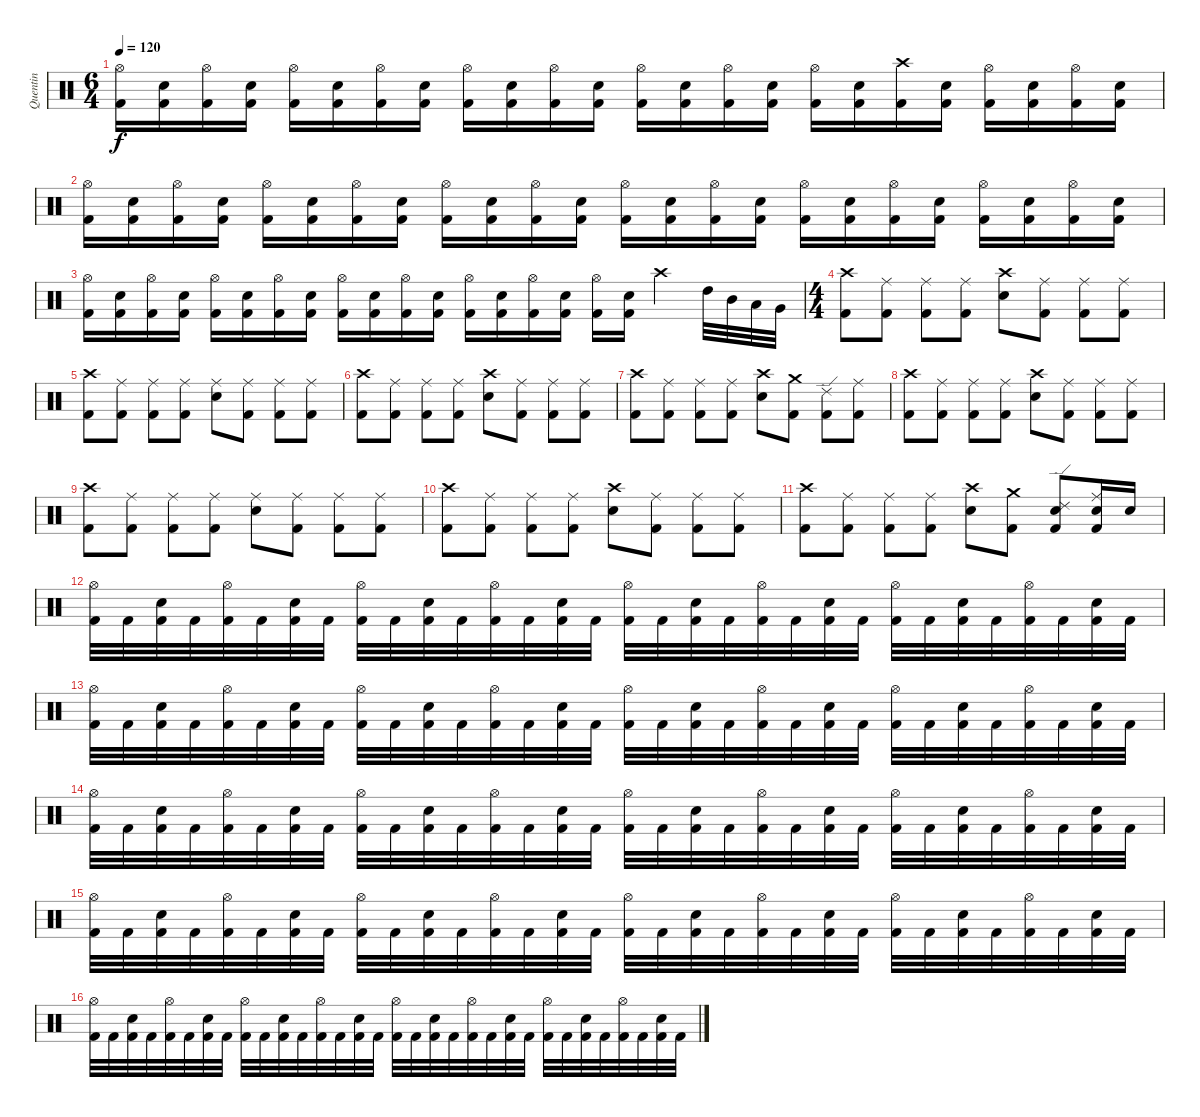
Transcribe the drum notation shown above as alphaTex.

\track ("Quentin" "Quentin") {instrument percussion}
\staff {score}
\articulation defaults
\ts (6 4)
\tempo 120
\clef neutral
\ks c
("Hi-Hat (open)" "Kick (hit) 2").16{dy f} ("Snare (hit) 2" "Kick (hit) 2").16 ("Hi-Hat (open)" "Kick (hit) 2").16 ("Snare (hit) 2" "Kick (hit) 2").16 ("Hi-Hat (open)" "Kick (hit) 2").16 ("Snare (hit) 2" "Kick (hit) 2").16 ("Hi-Hat (open)" "Kick (hit) 2").16 ("Snare (hit) 2" "Kick (hit) 2").16 ("Hi-Hat (open)" "Kick (hit) 2").16 ("Snare (hit) 2" "Kick (hit) 2").16 ("Hi-Hat (open)" "Kick (hit) 2").16 ("Snare (hit) 2" "Kick (hit) 2").16 ("Hi-Hat (open)" "Kick (hit) 2").16 ("Snare (hit) 2" "Kick (hit) 2").16 ("Hi-Hat (open)" "Kick (hit) 2").16 ("Snare (hit) 2" "Kick (hit) 2").16 ("Hi-Hat (open)" "Kick (hit) 2").16 ("Snare (hit) 2" "Kick (hit) 2").16 ("Crash high (hit)" "Kick (hit) 2").16 ("Snare (hit) 2" "Kick (hit) 2").16 ("Hi-Hat (open)" "Kick (hit) 2").16 ("Snare (hit) 2" "Kick (hit) 2").16 ("Hi-Hat (open)" "Kick (hit) 2").16 ("Snare (hit) 2" "Kick (hit) 2").16 |
("Hi-Hat (open)" "Kick (hit) 2").16 ("Snare (hit) 2" "Kick (hit) 2").16 ("Hi-Hat (open)" "Kick (hit) 2").16 ("Snare (hit) 2" "Kick (hit) 2").16 ("Hi-Hat (open)" "Kick (hit) 2").16 ("Snare (hit) 2" "Kick (hit) 2").16 ("Hi-Hat (open)" "Kick (hit) 2").16 ("Snare (hit) 2" "Kick (hit) 2").16 ("Hi-Hat (open)" "Kick (hit) 2").16 ("Snare (hit) 2" "Kick (hit) 2").16 ("Hi-Hat (open)" "Kick (hit) 2").16 ("Snare (hit) 2" "Kick (hit) 2").16 ("Hi-Hat (open)" "Kick (hit) 2").16 ("Snare (hit) 2" "Kick (hit) 2").16 ("Hi-Hat (open)" "Kick (hit) 2").16 ("Snare (hit) 2" "Kick (hit) 2").16 ("Hi-Hat (open)" "Kick (hit) 2").16 ("Snare (hit) 2" "Kick (hit) 2").16 ("Hi-Hat (open)" "Kick (hit) 2").16 ("Snare (hit) 2" "Kick (hit) 2").16 ("Hi-Hat (open)" "Kick (hit) 2").16 ("Snare (hit) 2" "Kick (hit) 2").16 ("Hi-Hat (open)" "Kick (hit) 2").16 ("Snare (hit) 2" "Kick (hit) 2").16 |
("Hi-Hat (open)" "Kick (hit) 2").16 ("Snare (hit) 2" "Kick (hit) 2").16 ("Hi-Hat (open)" "Kick (hit) 2").16 ("Snare (hit) 2" "Kick (hit) 2").16 ("Hi-Hat (open)" "Kick (hit) 2").16 ("Snare (hit) 2" "Kick (hit) 2").16 ("Hi-Hat (open)" "Kick (hit) 2").16 ("Snare (hit) 2" "Kick (hit) 2").16 ("Hi-Hat (open)" "Kick (hit) 2").16 ("Snare (hit) 2" "Kick (hit) 2").16 ("Hi-Hat (open)" "Kick (hit) 2").16 ("Snare (hit) 2" "Kick (hit) 2").16 ("Hi-Hat (open)" "Kick (hit) 2").16 ("Snare (hit) 2" "Kick (hit) 2").16 ("Hi-Hat (open)" "Kick (hit) 2").16 ("Snare (hit) 2" "Kick (hit) 2").16 ("Hi-Hat (open)" "Kick (hit) 2").16 ("Snare (hit) 2" "Kick (hit) 2").16 "Crash high (hit)".4 "High Tom (hit)".32 "Mid Tom (hit)".32 "Low Tom (hit)".32 "Very Low Tom (hit)".32 |
\ts (4 4)
("Crash high (hit)" "Kick (hit) 2").8 ("Ride (middle)" "Kick (hit) 2").8 ("Ride (middle)" "Kick (hit) 2").8 ("Ride (middle)" "Kick (hit) 2").8 ("Crash high (hit)" "Electric Snare (hit)").8 ("Ride (middle)" "Kick (hit) 2").8 ("Ride (middle)" "Kick (hit) 2").8 ("Ride (middle)" "Kick (hit) 2").8 |
("Crash high (hit)" "Kick (hit) 2").8 ("Ride (middle)" "Kick (hit) 2").8 ("Ride (middle)" "Kick (hit) 2").8 ("Ride (middle)" "Kick (hit) 2").8 ("Ride (middle)" "Electric Snare (hit)").8 ("Ride (middle)" "Kick (hit) 2").8 ("Ride (middle)" "Kick (hit) 2").8 ("Ride (middle)" "Kick (hit) 2").8 |
("Crash high (hit)" "Kick (hit) 2").8 ("Ride (middle)" "Kick (hit) 2").8 ("Ride (middle)" "Kick (hit) 2").8 ("Ride (middle)" "Kick (hit) 2").8 ("Crash high (hit)" "Electric Snare (hit)").8 ("Ride (middle)" "Kick (hit) 2").8 ("Ride (middle)" "Kick (hit) 2").8 ("Ride (middle)" "Kick (hit) 2").8 |
("Crash high (hit)" "Kick (hit) 2").8 ("Ride (middle)" "Kick (hit) 2").8 ("Ride (middle)" "Kick (hit) 2").8 ("Ride (middle)" "Kick (hit) 2").8 ("Crash high (hit)" "Electric Snare (hit)").8 ("Crash medium (hit)" "Kick (hit) 2").8 ("Ride (edge) 2" "Kick (hit) 2").8 ("Ride (middle)" "Kick (hit) 2").8 |
("Crash high (hit)" "Kick (hit) 2").8 ("Ride (middle)" "Kick (hit) 2").8 ("Ride (middle)" "Kick (hit) 2").8 ("Ride (middle)" "Kick (hit) 2").8 ("Crash high (hit)" "Electric Snare (hit)").8 ("Ride (middle)" "Kick (hit) 2").8 ("Ride (middle)" "Kick (hit) 2").8 ("Ride (middle)" "Kick (hit) 2").8 |
("Crash high (hit)" "Kick (hit) 2").8 ("Ride (middle)" "Kick (hit) 2").8 ("Ride (middle)" "Kick (hit) 2").8 ("Ride (middle)" "Kick (hit) 2").8 ("Ride (middle)" "Electric Snare (hit)").8 ("Ride (middle)" "Kick (hit) 2").8 ("Ride (middle)" "Kick (hit) 2").8 ("Ride (middle)" "Kick (hit) 2").8 |
("Crash high (hit)" "Kick (hit) 2").8 ("Ride (middle)" "Kick (hit) 2").8 ("Ride (middle)" "Kick (hit) 2").8 ("Ride (middle)" "Kick (hit) 2").8 ("Crash high (hit)" "Electric Snare (hit)").8 ("Ride (middle)" "Kick (hit) 2").8 ("Ride (middle)" "Kick (hit) 2").8 ("Ride (middle)" "Kick (hit) 2").8 |
("Crash high (hit)" "Kick (hit) 2").8 ("Ride (middle)" "Kick (hit) 2").8 ("Ride (middle)" "Kick (hit) 2").8 ("Ride (middle)" "Kick (hit) 2").8 ("Crash high (hit)" "Electric Snare (hit)").8 ("Crash medium (hit)" "Kick (hit) 2").8 ("Ride (edge) 2" "Electric Snare (hit)" "Kick (hit) 2").8 ("Ride (middle)" "Electric Snare (hit)" "Kick (hit) 2").16 "Electric Snare (hit)".16 |
("Hi-Hat (open)" "Kick (hit) 2").32 "Kick (hit) 2".32 ("Snare (hit) 2" "Kick (hit) 2").32 "Kick (hit) 2".32 ("Hi-Hat (open)" "Kick (hit) 2").32 "Kick (hit) 2".32 ("Snare (hit) 2" "Kick (hit) 2").32 "Kick (hit) 2".32 ("Hi-Hat (open)" "Kick (hit) 2").32 "Kick (hit) 2".32 ("Snare (hit) 2" "Kick (hit) 2").32 "Kick (hit) 2".32 ("Hi-Hat (open)" "Kick (hit) 2").32 "Kick (hit) 2".32 ("Snare (hit) 2" "Kick (hit) 2").32 "Kick (hit) 2".32 ("Hi-Hat (open)" "Kick (hit) 2").32 "Kick (hit) 2".32 ("Snare (hit) 2" "Kick (hit) 2").32 "Kick (hit) 2".32 ("Hi-Hat (open)" "Kick (hit) 2").32 "Kick (hit) 2".32 ("Snare (hit) 2" "Kick (hit) 2").32 "Kick (hit) 2".32 ("Hi-Hat (open)" "Kick (hit) 2").32 "Kick (hit) 2".32 ("Snare (hit) 2" "Kick (hit) 2").32 "Kick (hit) 2".32 ("Hi-Hat (open)" "Kick (hit) 2").32 "Kick (hit) 2".32 ("Snare (hit) 2" "Kick (hit) 2").32 "Kick (hit) 2".32 |
("Hi-Hat (open)" "Kick (hit) 2").32 "Kick (hit) 2".32 ("Snare (hit) 2" "Kick (hit) 2").32 "Kick (hit) 2".32 ("Hi-Hat (open)" "Kick (hit) 2").32 "Kick (hit) 2".32 ("Snare (hit) 2" "Kick (hit) 2").32 "Kick (hit) 2".32 ("Hi-Hat (open)" "Kick (hit) 2").32 "Kick (hit) 2".32 ("Snare (hit) 2" "Kick (hit) 2").32 "Kick (hit) 2".32 ("Hi-Hat (open)" "Kick (hit) 2").32 "Kick (hit) 2".32 ("Snare (hit) 2" "Kick (hit) 2").32 "Kick (hit) 2".32 ("Hi-Hat (open)" "Kick (hit) 2").32 "Kick (hit) 2".32 ("Snare (hit) 2" "Kick (hit) 2").32 "Kick (hit) 2".32 ("Hi-Hat (open)" "Kick (hit) 2").32 "Kick (hit) 2".32 ("Snare (hit) 2" "Kick (hit) 2").32 "Kick (hit) 2".32 ("Hi-Hat (open)" "Kick (hit) 2").32 "Kick (hit) 2".32 ("Snare (hit) 2" "Kick (hit) 2").32 "Kick (hit) 2".32 ("Hi-Hat (open)" "Kick (hit) 2").32 "Kick (hit) 2".32 ("Snare (hit) 2" "Kick (hit) 2").32 "Kick (hit) 2".32 |
("Hi-Hat (open)" "Kick (hit) 2").32 "Kick (hit) 2".32 ("Snare (hit) 2" "Kick (hit) 2").32 "Kick (hit) 2".32 ("Hi-Hat (open)" "Kick (hit) 2").32 "Kick (hit) 2".32 ("Snare (hit) 2" "Kick (hit) 2").32 "Kick (hit) 2".32 ("Hi-Hat (open)" "Kick (hit) 2").32 "Kick (hit) 2".32 ("Snare (hit) 2" "Kick (hit) 2").32 "Kick (hit) 2".32 ("Hi-Hat (open)" "Kick (hit) 2").32 "Kick (hit) 2".32 ("Snare (hit) 2" "Kick (hit) 2").32 "Kick (hit) 2".32 ("Hi-Hat (open)" "Kick (hit) 2").32 "Kick (hit) 2".32 ("Snare (hit) 2" "Kick (hit) 2").32 "Kick (hit) 2".32 ("Hi-Hat (open)" "Kick (hit) 2").32 "Kick (hit) 2".32 ("Snare (hit) 2" "Kick (hit) 2").32 "Kick (hit) 2".32 ("Hi-Hat (open)" "Kick (hit) 2").32 "Kick (hit) 2".32 ("Snare (hit) 2" "Kick (hit) 2").32 "Kick (hit) 2".32 ("Hi-Hat (open)" "Kick (hit) 2").32 "Kick (hit) 2".32 ("Snare (hit) 2" "Kick (hit) 2").32 "Kick (hit) 2".32 |
("Hi-Hat (open)" "Kick (hit) 2").32 "Kick (hit) 2".32 ("Snare (hit) 2" "Kick (hit) 2").32 "Kick (hit) 2".32 ("Hi-Hat (open)" "Kick (hit) 2").32 "Kick (hit) 2".32 ("Snare (hit) 2" "Kick (hit) 2").32 "Kick (hit) 2".32 ("Hi-Hat (open)" "Kick (hit) 2").32 "Kick (hit) 2".32 ("Snare (hit) 2" "Kick (hit) 2").32 "Kick (hit) 2".32 ("Hi-Hat (open)" "Kick (hit) 2").32 "Kick (hit) 2".32 ("Snare (hit) 2" "Kick (hit) 2").32 "Kick (hit) 2".32 ("Hi-Hat (open)" "Kick (hit) 2").32 "Kick (hit) 2".32 ("Snare (hit) 2" "Kick (hit) 2").32 "Kick (hit) 2".32 ("Hi-Hat (open)" "Kick (hit) 2").32 "Kick (hit) 2".32 ("Snare (hit) 2" "Kick (hit) 2").32 "Kick (hit) 2".32 ("Hi-Hat (open)" "Kick (hit) 2").32 "Kick (hit) 2".32 ("Snare (hit) 2" "Kick (hit) 2").32 "Kick (hit) 2".32 ("Hi-Hat (open)" "Kick (hit) 2").32 "Kick (hit) 2".32 ("Snare (hit) 2" "Kick (hit) 2").32 "Kick (hit) 2".32 |
("Hi-Hat (open)" "Kick (hit) 2").32 "Kick (hit) 2".32 ("Snare (hit) 2" "Kick (hit) 2").32 "Kick (hit) 2".32 ("Hi-Hat (open)" "Kick (hit) 2").32 "Kick (hit) 2".32 ("Snare (hit) 2" "Kick (hit) 2").32 "Kick (hit) 2".32 ("Hi-Hat (open)" "Kick (hit) 2").32 "Kick (hit) 2".32 ("Snare (hit) 2" "Kick (hit) 2").32 "Kick (hit) 2".32 ("Hi-Hat (open)" "Kick (hit) 2").32 "Kick (hit) 2".32 ("Snare (hit) 2" "Kick (hit) 2").32 "Kick (hit) 2".32 ("Hi-Hat (open)" "Kick (hit) 2").32 "Kick (hit) 2".32 ("Snare (hit) 2" "Kick (hit) 2").32 "Kick (hit) 2".32 ("Hi-Hat (open)" "Kick (hit) 2").32 "Kick (hit) 2".32 ("Snare (hit) 2" "Kick (hit) 2").32 "Kick (hit) 2".32 ("Hi-Hat (open)" "Kick (hit) 2").32 "Kick (hit) 2".32 ("Snare (hit) 2" "Kick (hit) 2").32 "Kick (hit) 2".32 ("Hi-Hat (open)" "Kick (hit) 2").32 "Kick (hit) 2".32 ("Snare (hit) 2" "Kick (hit) 2").32 "Kick (hit) 2".32
